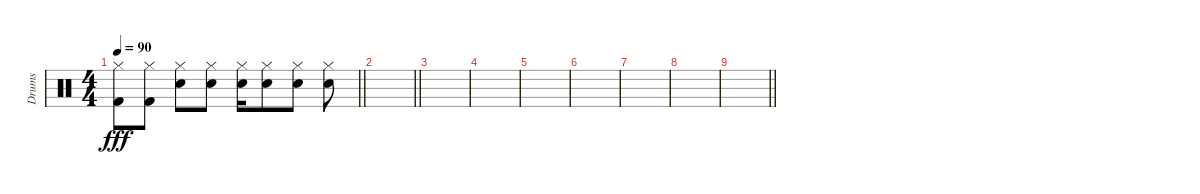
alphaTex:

\track ("Drums" "Drums") {instrument percussion}
\staff {score}
\articulation defaults
\ts (4 4)
\tempo 90
\clef neutral
\barLineRight lightlight
\ks c
("Hi-Hat (closed)" "Kick (hit) 2").8{dy fff} ("Hi-Hat (closed)" "Kick (hit) 2").8 ("Hi-Hat (closed)" "Snare (hit) 2").8 ("Hi-Hat (closed)" "Snare (hit) 2").8 ("Hi-Hat (closed)" "Snare (hit) 2").16 ("Hi-Hat (closed)" "Snare (hit) 2").8 ("Hi-Hat (closed)" "Snare (hit) 2").8 ("Hi-Hat (closed)" "Snare (hit) 2").8 |
\barLineRight lightlight
|
|
|
|
|
|
|
\barLineRight lightlight
